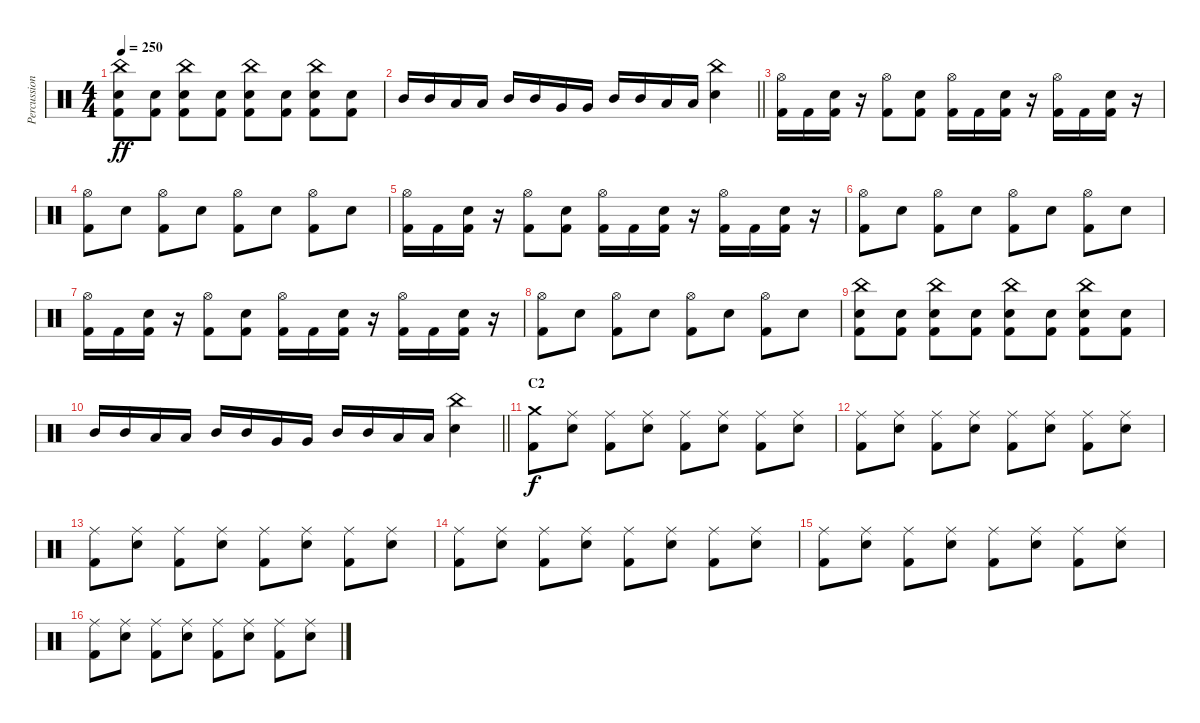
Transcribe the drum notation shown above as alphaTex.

\track ("Percussions" "Percussion") {instrument percussion}
\staff {score}
\articulation defaults
\ts (4 4)
\tempo 250
\clef neutral
\ks c
("China (hit)" "Electric Snare (hit)" "Kick (hit) 2").8{dy ff} ("Electric Snare (hit)" "Kick (hit) 2").8 ("China (hit)" "Electric Snare (hit)" "Kick (hit) 2").8 ("Electric Snare (hit)" "Kick (hit) 2").8 ("China (hit)" "Electric Snare (hit)" "Kick (hit) 2").8 ("Electric Snare (hit)" "Kick (hit) 2").8 ("China (hit)" "Electric Snare (hit)" "Kick (hit) 2").8 ("Electric Snare (hit)" "Kick (hit) 2").8 |
\barLineRight lightlight "Mid Tom (hit)".16 "Mid Tom (hit)".16 "Low Tom (hit)".16 "Low Tom (hit)".16 "Mid Tom (hit)".16 "Mid Tom (hit)".16 "Very Low Tom (hit)".16 "Very Low Tom (hit)".16 "Mid Tom (hit)".16 "Mid Tom (hit)".16 "Low Floor Tom (hit)".16 "Low Floor Tom (hit)".16
("China (hit)" "Electric Snare (hit)").4 |
("Hi-Hat (open)" "Kick (hit) 2").16 "Kick (hit) 2".16 ("Electric Snare (hit)" "Kick (hit) 2").16 r.16 ("Hi-Hat (open)" "Kick (hit) 2").8 ("Electric Snare (hit)" "Kick (hit) 2").8 ("Hi-Hat (open)" "Kick (hit) 2").16 "Kick (hit) 2".16 ("Electric Snare (hit)" "Kick (hit) 2").16 r.16 ("Hi-Hat (open)" "Kick (hit) 2").16 "Kick (hit) 2".16 ("Electric Snare (hit)" "Kick (hit) 2").16 r.16 |
("Hi-Hat (open)" "Kick (hit) 2").8 "Electric Snare (hit)".8 ("Hi-Hat (open)" "Kick (hit) 2").8 "Electric Snare (hit)".8 ("Hi-Hat (open)" "Kick (hit) 2").8 "Electric Snare (hit)".8 ("Hi-Hat (open)" "Kick (hit) 2").8 "Electric Snare (hit)".8 |
("Hi-Hat (open)" "Kick (hit) 2").16 "Kick (hit) 2".16 ("Electric Snare (hit)" "Kick (hit) 2").16 r.16 ("Hi-Hat (open)" "Kick (hit) 2").8 ("Electric Snare (hit)" "Kick (hit) 2").8 ("Hi-Hat (open)" "Kick (hit) 2").16 "Kick (hit) 2".16 ("Electric Snare (hit)" "Kick (hit) 2").16 r.16 ("Hi-Hat (open)" "Kick (hit) 2").16 "Kick (hit) 2".16 ("Electric Snare (hit)" "Kick (hit) 2").16 r.16 |
("Hi-Hat (open)" "Kick (hit) 2").8 "Electric Snare (hit)".8 ("Hi-Hat (open)" "Kick (hit) 2").8 "Electric Snare (hit)".8 ("Hi-Hat (open)" "Kick (hit) 2").8 "Electric Snare (hit)".8 ("Hi-Hat (open)" "Kick (hit) 2").8 "Electric Snare (hit)".8 |
("Hi-Hat (open)" "Kick (hit) 2").16 "Kick (hit) 2".16 ("Electric Snare (hit)" "Kick (hit) 2").16 r.16 ("Hi-Hat (open)" "Kick (hit) 2").8 ("Electric Snare (hit)" "Kick (hit) 2").8 ("Hi-Hat (open)" "Kick (hit) 2").16 "Kick (hit) 2".16 ("Electric Snare (hit)" "Kick (hit) 2").16 r.16 ("Hi-Hat (open)" "Kick (hit) 2").16 "Kick (hit) 2".16 ("Electric Snare (hit)" "Kick (hit) 2").16 r.16 |
("Hi-Hat (open)" "Kick (hit) 2").8 "Electric Snare (hit)".8 ("Hi-Hat (open)" "Kick (hit) 2").8 "Electric Snare (hit)".8 ("Hi-Hat (open)" "Kick (hit) 2").8 "Electric Snare (hit)".8 ("Hi-Hat (open)" "Kick (hit) 2").8 "Electric Snare (hit)".8 |
("China (hit)" "Electric Snare (hit)" "Kick (hit) 2").8 ("Electric Snare (hit)" "Kick (hit) 2").8 ("China (hit)" "Electric Snare (hit)" "Kick (hit) 2").8 ("Electric Snare (hit)" "Kick (hit) 2").8 ("China (hit)" "Electric Snare (hit)" "Kick (hit) 2").8 ("Electric Snare (hit)" "Kick (hit) 2").8 ("China (hit)" "Electric Snare (hit)" "Kick (hit) 2").8 ("Electric Snare (hit)" "Kick (hit) 2").8 |
\barLineRight lightlight "Mid Tom (hit)".16 "Mid Tom (hit)".16 "Low Tom (hit)".16 "Low Tom (hit)".16 "Mid Tom (hit)".16 "Mid Tom (hit)".16 "Very Low Tom (hit)".16 "Very Low Tom (hit)".16 "Mid Tom (hit)".16 "Mid Tom (hit)".16 "Low Floor Tom (hit)".16 "Low Floor Tom (hit)".16
("China (hit)" "Electric Snare (hit)").4 |
\section ("" "C2")
("Crash medium (hit)" "Kick (hit) 2").8{dy f} ("Ride (middle)" "Electric Snare (hit)").8 ("Ride (middle)" "Kick (hit) 2").8 ("Ride (middle)" "Electric Snare (hit)").8 ("Ride (middle)" "Kick (hit) 2").8 ("Ride (middle)" "Electric Snare (hit)").8 ("Ride (middle)" "Kick (hit) 2").8 ("Ride (middle)" "Electric Snare (hit)").8 |
("Ride (middle)" "Kick (hit) 2").8 ("Ride (middle)" "Electric Snare (hit)").8 ("Ride (middle)" "Kick (hit) 2").8 ("Ride (middle)" "Electric Snare (hit)").8 ("Ride (middle)" "Kick (hit) 2").8 ("Ride (middle)" "Electric Snare (hit)").8 ("Ride (middle)" "Kick (hit) 2").8 ("Ride (middle)" "Electric Snare (hit)").8 |
("Ride (middle)" "Kick (hit) 2").8 ("Ride (middle)" "Electric Snare (hit)").8 ("Ride (middle)" "Kick (hit) 2").8 ("Ride (middle)" "Electric Snare (hit)").8 ("Ride (middle)" "Kick (hit) 2").8 ("Ride (middle)" "Electric Snare (hit)").8 ("Ride (middle)" "Kick (hit) 2").8 ("Ride (middle)" "Electric Snare (hit)").8 |
("Ride (middle)" "Kick (hit) 2").8 ("Ride (middle)" "Electric Snare (hit)").8 ("Ride (middle)" "Kick (hit) 2").8 ("Ride (middle)" "Electric Snare (hit)").8 ("Ride (middle)" "Kick (hit) 2").8 ("Ride (middle)" "Electric Snare (hit)").8 ("Ride (middle)" "Kick (hit) 2").8 ("Ride (middle)" "Electric Snare (hit)").8 |
("Ride (middle)" "Kick (hit) 2").8 ("Ride (middle)" "Electric Snare (hit)").8 ("Ride (middle)" "Kick (hit) 2").8 ("Ride (middle)" "Electric Snare (hit)").8 ("Ride (middle)" "Kick (hit) 2").8 ("Ride (middle)" "Electric Snare (hit)").8 ("Ride (middle)" "Kick (hit) 2").8 ("Ride (middle)" "Electric Snare (hit)").8 |
("Ride (middle)" "Kick (hit) 2").8 ("Ride (middle)" "Electric Snare (hit)").8 ("Ride (middle)" "Kick (hit) 2").8 ("Ride (middle)" "Electric Snare (hit)").8 ("Ride (middle)" "Kick (hit) 2").8 ("Ride (middle)" "Electric Snare (hit)").8 ("Ride (middle)" "Kick (hit) 2").8 ("Ride (middle)" "Electric Snare (hit)").8
